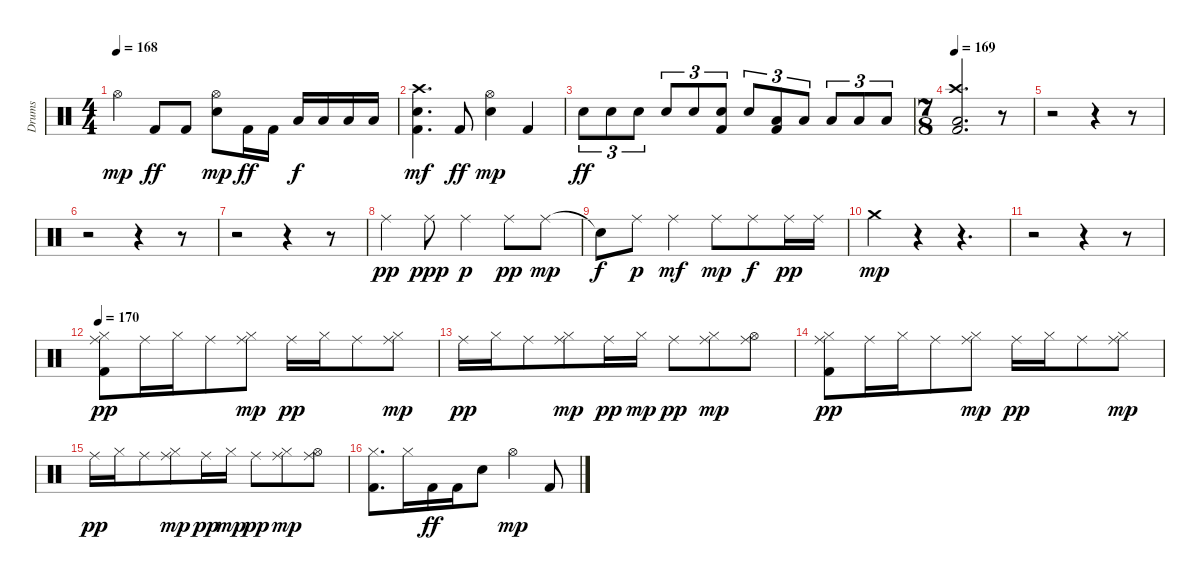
\track ("Drums" "Drums") {instrument percussion}
\staff {score}
\articulation defaults
\ts (4 4)
\tempo 168
\clef neutral
\ks c "Hi-Hat (open)".4{dy mp} "Kick (hit) 2".8{dy ff} "Kick (hit) 2".8
("Electric Snare (hit)" "Hi-Hat (open)").8{dy mp} "Kick (hit) 2".16{dy ff} "Kick (hit) 2".16 "Low Floor Tom (hit)".16{dy f} "Low Floor Tom (hit)".16 "Low Floor Tom (hit)".16 "Low Floor Tom (hit)".16 |
("Kick (hit) 2" "Electric Snare (hit)" "Crash high (hit)").4{d dy mf} "Kick (hit) 2".8{dy ff} ("Electric Snare (hit)" "Hi-Hat (open)").4{dy mp} "Kick (hit) 2".4 |
"Electric Snare (hit)".8{tu (3 2) dy ff} "Electric Snare (hit)".8{tu (3 2)} "Electric Snare (hit)".8{tu (3 2)} "Electric Snare (hit)".8{tu (3 2)} "Electric Snare (hit)".8{tu (3 2)} ("Kick (hit) 2" "Electric Snare (hit)").8{tu (3 2)} "Electric Snare (hit)".8{tu (3 2)} ("Kick (hit) 2" "Low Tom (hit)").8{tu (3 2)} "Low Tom (hit)".8{tu (3 2)} "Low Tom (hit)".8{tu (3 2)} "Low Tom (hit)".8{tu (3 2)} "Low Tom (hit)".8{tu (3 2)} |
\ts (7 8)
\tempo 169
("Kick (hit) 2" "Low Tom (hit)" "Crash high (hit)").2{d} r.8 |
r.2 r.4 r.8 |
r.2 r.4 r.8 |
r.2 r.4 r.8 |
"Ride (middle)".4{dy pp} "Ride (middle)".8{dy ppp} "Ride (middle)".4{dy p} "Ride (middle)".8{dy pp} "Ride (middle)".8{dy mp} |
"Snare (hit)"{t}.8{dy f} "Ride (middle)".8{dy p} "Ride (middle)".4{dy mf} "Ride (middle)".8{dy mp} "Ride (middle)".8{dy f} "Ride (middle)".16{dy pp} "Ride (middle)".16 |
"Crash medium (hit)".4{dy mp} r.4 r.4{d} |
r.2 r.4 r.8 |
\tempo 170
("Kick (hit) 2" "Ride (middle)" "Hi-Hat (closed)").8{dy pp} "Ride (middle)".16 "Hi-Hat (closed)".16 "Ride (middle)".8 ("Ride (middle)" "Hi-Hat (closed)").8{dy mp} "Ride (middle)".16{dy pp} "Hi-Hat (closed)".16 "Ride (middle)".8 ("Ride (middle)" "Hi-Hat (closed)").8{dy mp} |
"Ride (middle)".16{dy pp} "Hi-Hat (closed)".16 "Ride (middle)".8 ("Ride (middle)" "Hi-Hat (closed)").8{dy mp} "Ride (middle)".16{dy pp} "Hi-Hat (closed)".16{dy mp} "Ride (middle)".8{dy pp} ("Ride (middle)" "Hi-Hat (closed)").8{dy mp} ("Ride (middle)" "Hi-Hat (open)").8 |
("Kick (hit) 2" "Ride (middle)" "Hi-Hat (closed)").8{dy pp} "Ride (middle)".16 "Hi-Hat (closed)".16 "Ride (middle)".8 ("Ride (middle)" "Hi-Hat (closed)").8{dy mp} "Ride (middle)".16{dy pp} "Hi-Hat (closed)".16 "Ride (middle)".8 ("Ride (middle)" "Hi-Hat (closed)").8{dy mp} |
"Ride (middle)".16{dy pp} "Hi-Hat (closed)".16 "Ride (middle)".8 ("Ride (middle)" "Hi-Hat (closed)").8{dy mp} "Ride (middle)".16{dy pp} "Hi-Hat (closed)".16{dy mp} "Ride (middle)".8{dy pp} ("Ride (middle)" "Hi-Hat (closed)").8{dy mp} ("Ride (middle)" "Hi-Hat (open)").8 |
("Kick (hit) 2" "Hi-Hat (closed)").8{d} "Hi-Hat (closed)".16 "Kick (hit) 2".16{dy ff} "Kick (hit) 2".16 "Electric Snare (hit)".8 "Hi-Hat (open)".4{dy mp} "Kick (hit) 2".8
